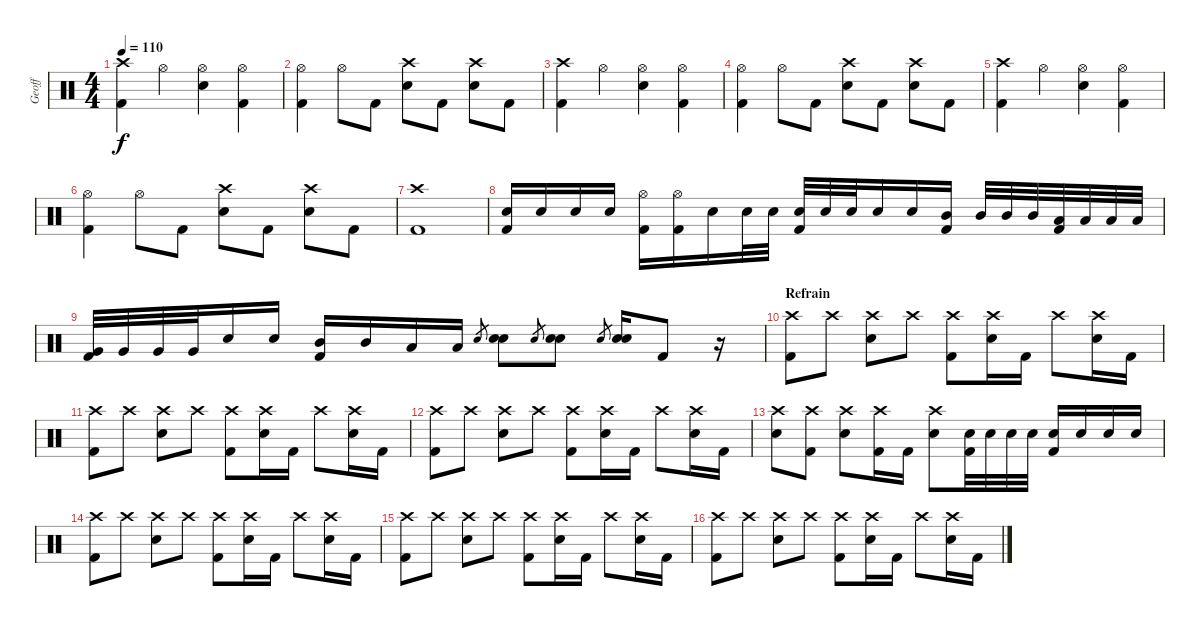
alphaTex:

\track ("Geoff" "Geoff") {instrument percussion}
\staff {score}
\articulation defaults
\ts (4 4)
\tempo 110
\clef neutral
\ks c
("Crash high (hit)" "Kick (hit) 2").4{dy f} "Hi-Hat (open)".4 ("Hi-Hat (open)" "Electric Snare (hit)").4 ("Hi-Hat (open)" "Kick (hit) 2").4 |
("Hi-Hat (open)" "Kick (hit) 2").4 "Hi-Hat (open)".8 "Kick (hit) 2".8 ("Crash high (hit)" "Electric Snare (hit)").8 "Kick (hit) 2".8 ("Crash high (hit)" "Electric Snare (hit)").8 "Kick (hit) 2".8 |
("Crash high (hit)" "Kick (hit) 2").4 "Hi-Hat (open)".4 ("Hi-Hat (open)" "Electric Snare (hit)").4 ("Hi-Hat (open)" "Kick (hit) 2").4 |
("Hi-Hat (open)" "Kick (hit) 2").4 "Hi-Hat (open)".8 "Kick (hit) 2".8 ("Crash high (hit)" "Electric Snare (hit)").8 "Kick (hit) 2".8 ("Crash high (hit)" "Electric Snare (hit)").8 "Kick (hit) 2".8 |
("Crash high (hit)" "Kick (hit) 2").4 "Hi-Hat (open)".4 ("Hi-Hat (open)" "Electric Snare (hit)").4 ("Hi-Hat (open)" "Kick (hit) 2").4 |
("Hi-Hat (open)" "Kick (hit) 2").4 "Hi-Hat (open)".8 "Kick (hit) 2".8 ("Crash high (hit)" "Electric Snare (hit)").8 "Kick (hit) 2".8 ("Crash high (hit)" "Electric Snare (hit)").8 "Kick (hit) 2".8 |
("Crash high (hit)" "Kick (hit) 2").1 |
("Electric Snare (hit)" "Kick (hit) 2").16 "Electric Snare (hit)".16 "Electric Snare (hit)".16 "Electric Snare (hit)".16 ("Hi-Hat (open)" "Kick (hit) 2").16 ("Hi-Hat (open)" "Kick (hit) 2").16 "Electric Snare (hit)".16 "Electric Snare (hit)".32 "Electric Snare (hit)".32 ("Electric Snare (hit)" "Kick (hit) 2").32 "Electric Snare (hit)".32 "Electric Snare (hit)".32 "Electric Snare (hit)".16 "Electric Snare (hit)".16 ("Mid Tom (hit)" "Kick (hit) 2").16 "Mid Tom (hit)".32 "Mid Tom (hit)".32 "Mid Tom (hit)".32 ("Low Tom (hit)" "Kick (hit) 2").32 "Low Tom (hit)".32 "Low Tom (hit)".32 "Low Tom (hit)".32 |
("Very Low Tom (hit)" "Kick (hit) 2").32 "Very Low Tom (hit)".32 "Very Low Tom (hit)".32 "Very Low Tom (hit)".32 "Electric Snare (hit)".16 "Electric Snare (hit)".16 ("Mid Tom (hit)" "Kick (hit) 2").16 "Mid Tom (hit)".16 "Low Tom (hit)".16 "Low Tom (hit)".16 "Electric Snare (hit)".8{gr} ("Electric Snare (hit)" "Electric Snare (hit)").8 "Electric Snare (hit)".8{gr} ("Electric Snare (hit)" "Electric Snare (hit)").8 "Electric Snare (hit)".8{gr} ("Electric Snare (hit)" "Electric Snare (hit)").16 "Kick (hit) 2".8 r.16 |
\section ("" "Refrain")
("Crash high (hit)" "Kick (hit) 2").8 "Crash high (hit)".8 ("Crash high (hit)" "Electric Snare (hit)").8 "Crash high (hit)".8 ("Crash high (hit)" "Kick (hit) 2").8 ("Crash high (hit)" "Electric Snare (hit)").16 "Kick (hit) 2".16 "Crash high (hit)".8 ("Crash high (hit)" "Electric Snare (hit)").16 "Kick (hit) 2".16 |
("Crash high (hit)" "Kick (hit) 2").8 "Crash high (hit)".8 ("Crash high (hit)" "Electric Snare (hit)").8 "Crash high (hit)".8 ("Crash high (hit)" "Kick (hit) 2").8 ("Crash high (hit)" "Electric Snare (hit)").16 "Kick (hit) 2".16 "Crash high (hit)".8 ("Crash high (hit)" "Electric Snare (hit)").16 "Kick (hit) 2".16 |
("Crash high (hit)" "Kick (hit) 2").8 "Crash high (hit)".8 ("Crash high (hit)" "Electric Snare (hit)").8 "Crash high (hit)".8 ("Crash high (hit)" "Kick (hit) 2").8 ("Crash high (hit)" "Electric Snare (hit)").16 "Kick (hit) 2".16 "Crash high (hit)".8 ("Crash high (hit)" "Electric Snare (hit)").16 "Kick (hit) 2".16 |
("Crash high (hit)" "Electric Snare (hit)").8 ("Crash high (hit)" "Kick (hit) 2").8 ("Crash high (hit)" "Electric Snare (hit)").8 ("Crash high (hit)" "Kick (hit) 2").16 "Kick (hit) 2".16 ("Crash high (hit)" "Electric Snare (hit)").8 ("Electric Snare (hit)" "Kick (hit) 2").32 "Electric Snare (hit)".32 "Electric Snare (hit)".32 "Electric Snare (hit)".32 ("Electric Snare (hit)" "Kick (hit) 2").16 "Electric Snare (hit)".16 "Electric Snare (hit)".16 "Electric Snare (hit)".16 |
("Crash high (hit)" "Kick (hit) 2").8 "Crash high (hit)".8 ("Crash high (hit)" "Electric Snare (hit)").8 "Crash high (hit)".8 ("Crash high (hit)" "Kick (hit) 2").8 ("Crash high (hit)" "Electric Snare (hit)").16 "Kick (hit) 2".16 "Crash high (hit)".8 ("Crash high (hit)" "Electric Snare (hit)").16 "Kick (hit) 2".16 |
("Crash high (hit)" "Kick (hit) 2").8 "Crash high (hit)".8 ("Crash high (hit)" "Electric Snare (hit)").8 "Crash high (hit)".8 ("Crash high (hit)" "Kick (hit) 2").8 ("Crash high (hit)" "Electric Snare (hit)").16 "Kick (hit) 2".16 "Crash high (hit)".8 ("Crash high (hit)" "Electric Snare (hit)").16 "Kick (hit) 2".16 |
("Crash high (hit)" "Kick (hit) 2").8 "Crash high (hit)".8 ("Crash high (hit)" "Electric Snare (hit)").8 "Crash high (hit)".8 ("Crash high (hit)" "Kick (hit) 2").8 ("Crash high (hit)" "Electric Snare (hit)").16 "Kick (hit) 2".16 "Crash high (hit)".8 ("Crash high (hit)" "Electric Snare (hit)").16 "Kick (hit) 2".16
